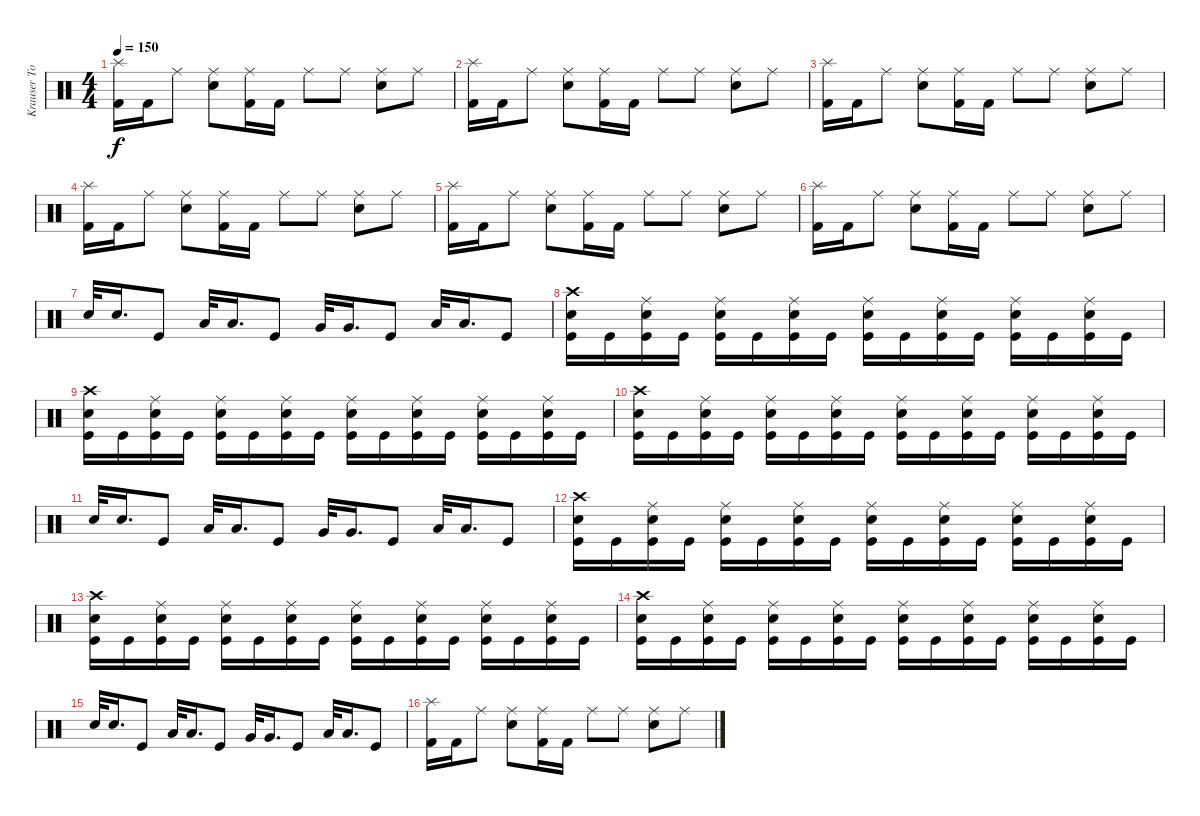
\track ("Krauser Tolixon" "Krauser To") {instrument percussion}
\staff {score}
\articulation defaults
\ts (4 4)
\tempo 150
\clef neutral
\ks c
("Splash (hit)" "Kick (hit) 2").16{dy f} "Kick (hit) 2".16 "Ride (middle)".8 ("Ride (middle)" "Electric Snare (hit)").8 ("Ride (middle)" "Kick (hit) 2").16 "Kick (hit) 2".16 "Ride (middle)".8 "Ride (middle)".8 ("Ride (middle)" "Electric Snare (hit)").8 "Ride (middle)".8 |
("Splash (hit)" "Kick (hit) 2").16 "Kick (hit) 2".16 "Ride (middle)".8 ("Ride (middle)" "Electric Snare (hit)").8 ("Ride (middle)" "Kick (hit) 2").16 "Kick (hit) 2".16 "Ride (middle)".8 "Ride (middle)".8 ("Ride (middle)" "Electric Snare (hit)").8 "Ride (middle)".8 |
("Splash (hit)" "Kick (hit) 2").16 "Kick (hit) 2".16 "Ride (middle)".8 ("Ride (middle)" "Electric Snare (hit)").8 ("Ride (middle)" "Kick (hit) 2").16 "Kick (hit) 2".16 "Ride (middle)".8 "Ride (middle)".8 ("Ride (middle)" "Electric Snare (hit)").8 "Ride (middle)".8 |
("Splash (hit)" "Kick (hit) 2").16 "Kick (hit) 2".16 "Ride (middle)".8 ("Ride (middle)" "Electric Snare (hit)").8 ("Ride (middle)" "Kick (hit) 2").16 "Kick (hit) 2".16 "Ride (middle)".8 "Ride (middle)".8 ("Ride (middle)" "Electric Snare (hit)").8 "Ride (middle)".8 |
("Splash (hit)" "Kick (hit) 2").16 "Kick (hit) 2".16 "Ride (middle)".8 ("Ride (middle)" "Electric Snare (hit)").8 ("Ride (middle)" "Kick (hit) 2").16 "Kick (hit) 2".16 "Ride (middle)".8 "Ride (middle)".8 ("Ride (middle)" "Electric Snare (hit)").8 "Ride (middle)".8 |
("Splash (hit)" "Kick (hit) 2").16 "Kick (hit) 2".16 "Ride (middle)".8 ("Ride (middle)" "Electric Snare (hit)").8 ("Ride (middle)" "Kick (hit) 2").16 "Kick (hit) 2".16 "Ride (middle)".8 "Ride (middle)".8 ("Ride (middle)" "Electric Snare (hit)").8 "Ride (middle)".8 |
"Electric Snare (hit)".32 "Electric Snare (hit)".16{d} "Kick (hit)".8 "Low Tom (hit)".32 "Low Tom (hit)".16{d} "Kick (hit)".8 "Very Low Tom (hit)".32 "Very Low Tom (hit)".16{d} "Kick (hit)".8 "Low Floor Tom (hit)".32 "Low Floor Tom (hit)".16{d} "Kick (hit)".8 |
("Crash high (hit)" "Electric Snare (hit)" "Kick (hit)").16 "Kick (hit)".16 ("Ride (middle)" "Electric Snare (hit)" "Kick (hit)").16 "Kick (hit)".16 ("Ride (middle)" "Electric Snare (hit)" "Kick (hit)").16 "Kick (hit)".16 ("Ride (middle)" "Electric Snare (hit)" "Kick (hit)").16 "Kick (hit)".16 ("Ride (middle)" "Electric Snare (hit)" "Kick (hit)").16 "Kick (hit)".16 ("Ride (middle)" "Electric Snare (hit)" "Kick (hit)").16 "Kick (hit)".16 ("Ride (middle)" "Electric Snare (hit)" "Kick (hit)").16 "Kick (hit)".16 ("Ride (middle)" "Electric Snare (hit)" "Kick (hit)").16 "Kick (hit)".16 |
("Crash high (hit)" "Electric Snare (hit)" "Kick (hit)").16 "Kick (hit)".16 ("Ride (middle)" "Electric Snare (hit)" "Kick (hit)").16 "Kick (hit)".16 ("Ride (middle)" "Electric Snare (hit)" "Kick (hit)").16 "Kick (hit)".16 ("Ride (middle)" "Electric Snare (hit)" "Kick (hit)").16 "Kick (hit)".16 ("Ride (middle)" "Electric Snare (hit)" "Kick (hit)").16 "Kick (hit)".16 ("Ride (middle)" "Electric Snare (hit)" "Kick (hit)").16 "Kick (hit)".16 ("Ride (middle)" "Electric Snare (hit)" "Kick (hit)").16 "Kick (hit)".16 ("Ride (middle)" "Electric Snare (hit)" "Kick (hit)").16 "Kick (hit)".16 |
("Crash high (hit)" "Electric Snare (hit)" "Kick (hit)").16 "Kick (hit)".16 ("Ride (middle)" "Electric Snare (hit)" "Kick (hit)").16 "Kick (hit)".16 ("Ride (middle)" "Electric Snare (hit)" "Kick (hit)").16 "Kick (hit)".16 ("Ride (middle)" "Electric Snare (hit)" "Kick (hit)").16 "Kick (hit)".16 ("Ride (middle)" "Electric Snare (hit)" "Kick (hit)").16 "Kick (hit)".16 ("Ride (middle)" "Electric Snare (hit)" "Kick (hit)").16 "Kick (hit)".16 ("Ride (middle)" "Electric Snare (hit)" "Kick (hit)").16 "Kick (hit)".16 ("Ride (middle)" "Electric Snare (hit)" "Kick (hit)").16 "Kick (hit)".16 |
"Electric Snare (hit)".32 "Electric Snare (hit)".16{d} "Kick (hit)".8 "Low Tom (hit)".32 "Low Tom (hit)".16{d} "Kick (hit)".8 "Very Low Tom (hit)".32 "Very Low Tom (hit)".16{d} "Kick (hit)".8 "Low Floor Tom (hit)".32 "Low Floor Tom (hit)".16{d} "Kick (hit)".8 |
("Crash high (hit)" "Electric Snare (hit)" "Kick (hit)").16 "Kick (hit)".16 ("Ride (middle)" "Electric Snare (hit)" "Kick (hit)").16 "Kick (hit)".16 ("Ride (middle)" "Electric Snare (hit)" "Kick (hit)").16 "Kick (hit)".16 ("Ride (middle)" "Electric Snare (hit)" "Kick (hit)").16 "Kick (hit)".16 ("Ride (middle)" "Electric Snare (hit)" "Kick (hit)").16 "Kick (hit)".16 ("Ride (middle)" "Electric Snare (hit)" "Kick (hit)").16 "Kick (hit)".16 ("Ride (middle)" "Electric Snare (hit)" "Kick (hit)").16 "Kick (hit)".16 ("Ride (middle)" "Electric Snare (hit)" "Kick (hit)").16 "Kick (hit)".16 |
("Crash high (hit)" "Electric Snare (hit)" "Kick (hit)").16 "Kick (hit)".16 ("Ride (middle)" "Electric Snare (hit)" "Kick (hit)").16 "Kick (hit)".16 ("Ride (middle)" "Electric Snare (hit)" "Kick (hit)").16 "Kick (hit)".16 ("Ride (middle)" "Electric Snare (hit)" "Kick (hit)").16 "Kick (hit)".16 ("Ride (middle)" "Electric Snare (hit)" "Kick (hit)").16 "Kick (hit)".16 ("Ride (middle)" "Electric Snare (hit)" "Kick (hit)").16 "Kick (hit)".16 ("Ride (middle)" "Electric Snare (hit)" "Kick (hit)").16 "Kick (hit)".16 ("Ride (middle)" "Electric Snare (hit)" "Kick (hit)").16 "Kick (hit)".16 |
("Crash high (hit)" "Electric Snare (hit)" "Kick (hit)").16 "Kick (hit)".16 ("Ride (middle)" "Electric Snare (hit)" "Kick (hit)").16 "Kick (hit)".16 ("Ride (middle)" "Electric Snare (hit)" "Kick (hit)").16 "Kick (hit)".16 ("Ride (middle)" "Electric Snare (hit)" "Kick (hit)").16 "Kick (hit)".16 ("Ride (middle)" "Electric Snare (hit)" "Kick (hit)").16 "Kick (hit)".16 ("Ride (middle)" "Electric Snare (hit)" "Kick (hit)").16 "Kick (hit)".16 ("Ride (middle)" "Electric Snare (hit)" "Kick (hit)").16 "Kick (hit)".16 ("Ride (middle)" "Electric Snare (hit)" "Kick (hit)").16 "Kick (hit)".16 |
"Electric Snare (hit)".32 "Electric Snare (hit)".16{d} "Kick (hit)".8 "Low Tom (hit)".32 "Low Tom (hit)".16{d} "Kick (hit)".8 "Very Low Tom (hit)".32 "Very Low Tom (hit)".16{d} "Kick (hit)".8 "Low Floor Tom (hit)".32 "Low Floor Tom (hit)".16{d} "Kick (hit)".8 |
("Splash (hit)" "Kick (hit) 2").16 "Kick (hit) 2".16 "Ride (middle)".8 ("Ride (middle)" "Electric Snare (hit)").8 ("Ride (middle)" "Kick (hit) 2").16 "Kick (hit) 2".16 "Ride (middle)".8 "Ride (middle)".8 ("Ride (middle)" "Electric Snare (hit)").8 "Ride (middle)".8
